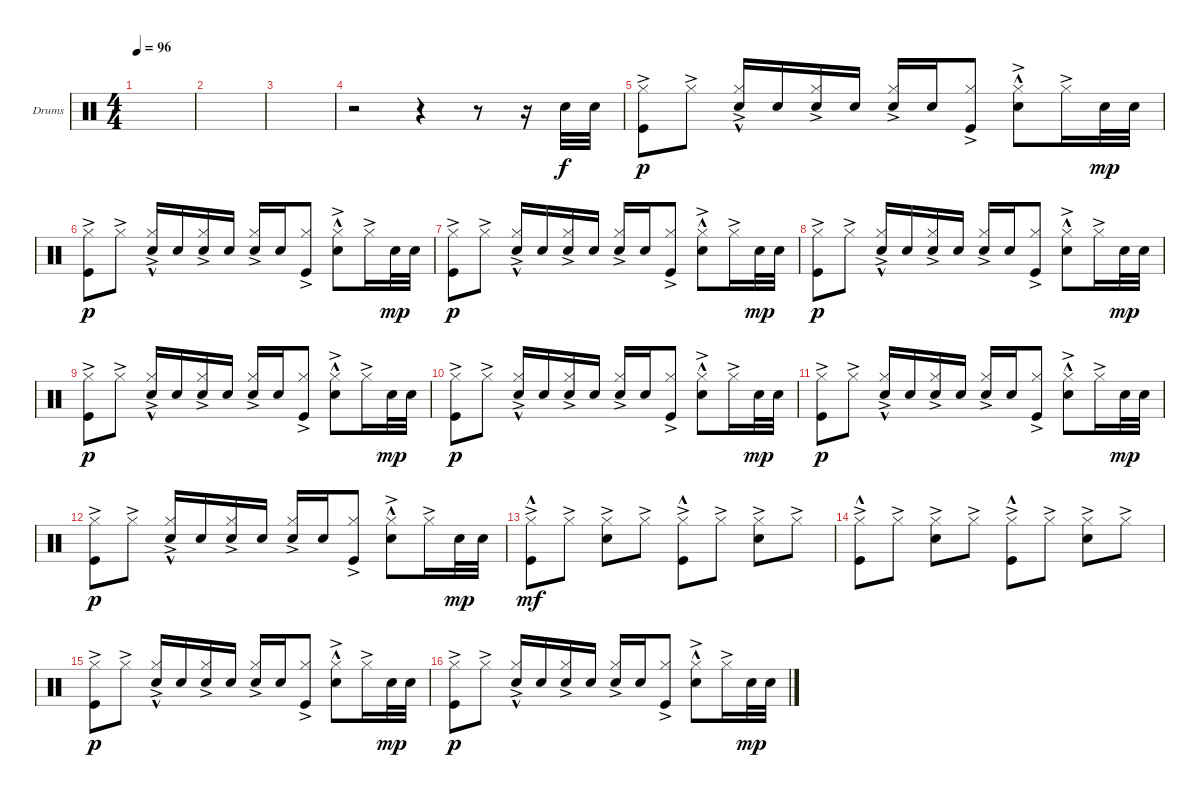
\defaultSystemsLayout 4
\bracketExtendMode groupsimilarinstruments
\firstSystemTrackNameOrientation horizontal
\otherSystemsTrackNameOrientation horizontal
\track ("Drumkit" "Drums") {instrument percussion}
\staff {score}
\articulation defaults
\ts (4 4)
\tempo 96
\clef neutral
\scale
0.186475
\ks c
|
\scale
0.109709 |
\scale
0.0639453 |
\scale
0.56 r.2 r.4 r.8 r.16 "Snare (hit) 2".32 "Snare (hit) 2".32 |
\scale
0.743386 ("Hi-Hat (closed)"{ac} "Kick (hit)"{ac}).8{dy p} "Hi-Hat (closed)"{ac}.8 ("Hi-Hat (closed)"{ac} "Snare (hit) 2"{hac}).16 "Snare (hit) 2".16 ("Snare (hit) 2" "Hi-Hat (closed)"{ac}).16 "Snare (hit) 2".16 ("Hi-Hat (closed)"{ac} "Snare (hit) 2").16{beam invert} "Snare (hit) 2".16 ("Hi-Hat (closed)"{ac} "Kick (hit)").8 ("Snare (hit) 2"{hac} "Hi-Hat (closed)"{ac}).8 "Hi-Hat (closed)"{ac}.16 "Snare (hit) 2".32{dy mp} "Snare (hit) 2".32 |
\scale
0.333333 ("Hi-Hat (closed)"{ac} "Kick (hit)"{ac}).8{dy p} "Hi-Hat (closed)"{ac}.8 ("Hi-Hat (closed)"{ac} "Snare (hit) 2"{hac}).16 "Snare (hit) 2".16 ("Snare (hit) 2" "Hi-Hat (closed)"{ac}).16 "Snare (hit) 2".16 ("Hi-Hat (closed)"{ac} "Snare (hit) 2").16{beam invert} "Snare (hit) 2".16 ("Hi-Hat (closed)"{ac} "Kick (hit)").8 ("Snare (hit) 2"{hac} "Hi-Hat (closed)"{ac}).8 "Hi-Hat (closed)"{ac}.16 "Snare (hit) 2".32{dy mp} "Snare (hit) 2".32 |
\scale
0.333333 ("Hi-Hat (closed)"{ac} "Kick (hit)"{ac}).8{dy p} "Hi-Hat (closed)"{ac}.8 ("Hi-Hat (closed)"{ac} "Snare (hit) 2"{hac}).16 "Snare (hit) 2".16 ("Snare (hit) 2" "Hi-Hat (closed)"{ac}).16 "Snare (hit) 2".16 ("Hi-Hat (closed)"{ac} "Snare (hit) 2").16{beam invert} "Snare (hit) 2".16 ("Hi-Hat (closed)"{ac} "Kick (hit)").8 ("Snare (hit) 2"{hac} "Hi-Hat (closed)"{ac}).8 "Hi-Hat (closed)"{ac}.16 "Snare (hit) 2".32{dy mp} "Snare (hit) 2".32 |
\scale
0.333333 ("Hi-Hat (closed)"{ac} "Kick (hit)"{ac}).8{dy p} "Hi-Hat (closed)"{ac}.8 ("Hi-Hat (closed)"{ac} "Snare (hit) 2"{hac}).16 "Snare (hit) 2".16 ("Snare (hit) 2" "Hi-Hat (closed)"{ac}).16 "Snare (hit) 2".16 ("Hi-Hat (closed)"{ac} "Snare (hit) 2").16{beam invert} "Snare (hit) 2".16 ("Hi-Hat (closed)"{ac} "Kick (hit)").8 ("Snare (hit) 2"{hac} "Hi-Hat (closed)"{ac}).8 "Hi-Hat (closed)"{ac}.16 "Snare (hit) 2".32{dy mp} "Snare (hit) 2".32 |
\scale
0.333333 ("Hi-Hat (closed)"{ac} "Kick (hit)"{ac}).8{dy p} "Hi-Hat (closed)"{ac}.8 ("Hi-Hat (closed)"{ac} "Snare (hit) 2"{hac}).16 "Snare (hit) 2".16 ("Snare (hit) 2" "Hi-Hat (closed)"{ac}).16 "Snare (hit) 2".16 ("Hi-Hat (closed)"{ac} "Snare (hit) 2").16{beam invert} "Snare (hit) 2".16 ("Hi-Hat (closed)"{ac} "Kick (hit)").8 ("Snare (hit) 2"{hac} "Hi-Hat (closed)"{ac}).8 "Hi-Hat (closed)"{ac}.16 "Snare (hit) 2".32{dy mp} "Snare (hit) 2".32 |
\scale
0.333333 ("Hi-Hat (closed)"{ac} "Kick (hit)"{ac}).8{dy p} "Hi-Hat (closed)"{ac}.8 ("Hi-Hat (closed)"{ac} "Snare (hit) 2"{hac}).16 "Snare (hit) 2".16 ("Snare (hit) 2" "Hi-Hat (closed)"{ac}).16 "Snare (hit) 2".16 ("Hi-Hat (closed)"{ac} "Snare (hit) 2").16{beam invert} "Snare (hit) 2".16 ("Hi-Hat (closed)"{ac} "Kick (hit)").8 ("Snare (hit) 2"{hac} "Hi-Hat (closed)"{ac}).8 "Hi-Hat (closed)"{ac}.16 "Snare (hit) 2".32{dy mp} "Snare (hit) 2".32 |
\scale
0.333333 ("Hi-Hat (closed)"{ac} "Kick (hit)"{ac}).8{dy p} "Hi-Hat (closed)"{ac}.8 ("Hi-Hat (closed)"{ac} "Snare (hit) 2"{hac}).16 "Snare (hit) 2".16 ("Snare (hit) 2" "Hi-Hat (closed)"{ac}).16 "Snare (hit) 2".16 ("Hi-Hat (closed)"{ac} "Snare (hit) 2").16{beam invert} "Snare (hit) 2".16 ("Hi-Hat (closed)"{ac} "Kick (hit)").8 ("Snare (hit) 2"{hac} "Hi-Hat (closed)"{ac}).8 "Hi-Hat (closed)"{ac}.16 "Snare (hit) 2".32{dy mp} "Snare (hit) 2".32 |
\scale
0.333333 ("Hi-Hat (closed)"{ac} "Kick (hit)"{ac}).8{dy p} "Hi-Hat (closed)"{ac}.8 ("Hi-Hat (closed)"{ac} "Snare (hit) 2"{hac}).16 "Snare (hit) 2".16 ("Snare (hit) 2" "Hi-Hat (closed)"{ac}).16 "Snare (hit) 2".16 ("Hi-Hat (closed)"{ac} "Snare (hit) 2").16{beam invert} "Snare (hit) 2".16 ("Hi-Hat (closed)"{ac} "Kick (hit)").8 ("Snare (hit) 2"{hac} "Hi-Hat (closed)"{ac}).8 "Hi-Hat (closed)"{ac}.16 "Snare (hit) 2".32{dy mp} "Snare (hit) 2".32 |
("Hi-Hat (closed)"{ac} "Kick (hit)"{hac}).8{dy mf} "Hi-Hat (closed)"{ac}.8 ("Hi-Hat (closed)"{ac} "Snare (hit) 2").8 "Hi-Hat (closed)"{ac}.8 ("Hi-Hat (closed)"{ac} "Kick (hit)"{hac}).8 "Hi-Hat (closed)"{ac}.8 ("Hi-Hat (closed)"{ac} "Snare (hit) 2").8 "Hi-Hat (closed)"{ac}.8 |
("Hi-Hat (closed)"{ac} "Kick (hit)"{hac}).8 "Hi-Hat (closed)"{ac}.8 ("Hi-Hat (closed)"{ac} "Snare (hit) 2").8 "Hi-Hat (closed)"{ac}.8 ("Hi-Hat (closed)"{ac} "Kick (hit)"{hac}).8 "Hi-Hat (closed)"{ac}.8 ("Hi-Hat (closed)"{ac} "Snare (hit) 2").8 "Hi-Hat (closed)"{ac}.8 |
("Hi-Hat (closed)"{ac} "Kick (hit)"{ac}).8{dy p} "Hi-Hat (closed)"{ac}.8 ("Hi-Hat (closed)"{ac} "Snare (hit) 2"{hac}).16 "Snare (hit) 2".16 ("Snare (hit) 2" "Hi-Hat (closed)"{ac}).16 "Snare (hit) 2".16 ("Hi-Hat (closed)"{ac} "Snare (hit) 2").16{beam invert} "Snare (hit) 2".16 ("Hi-Hat (closed)"{ac} "Kick (hit)").8 ("Snare (hit) 2"{hac} "Hi-Hat (closed)"{ac}).8 "Hi-Hat (closed)"{ac}.16 "Snare (hit) 2".32{dy mp} "Snare (hit) 2".32 |
("Hi-Hat (closed)"{ac} "Kick (hit)"{ac}).8{dy p} "Hi-Hat (closed)"{ac}.8 ("Hi-Hat (closed)"{ac} "Snare (hit) 2"{hac}).16 "Snare (hit) 2".16 ("Snare (hit) 2" "Hi-Hat (closed)"{ac}).16 "Snare (hit) 2".16 ("Hi-Hat (closed)"{ac} "Snare (hit) 2").16{beam invert} "Snare (hit) 2".16 ("Hi-Hat (closed)"{ac} "Kick (hit)").8 ("Snare (hit) 2"{hac} "Hi-Hat (closed)"{ac}).8 "Hi-Hat (closed)"{ac}.16 "Snare (hit) 2".32{dy mp} "Snare (hit) 2".32
